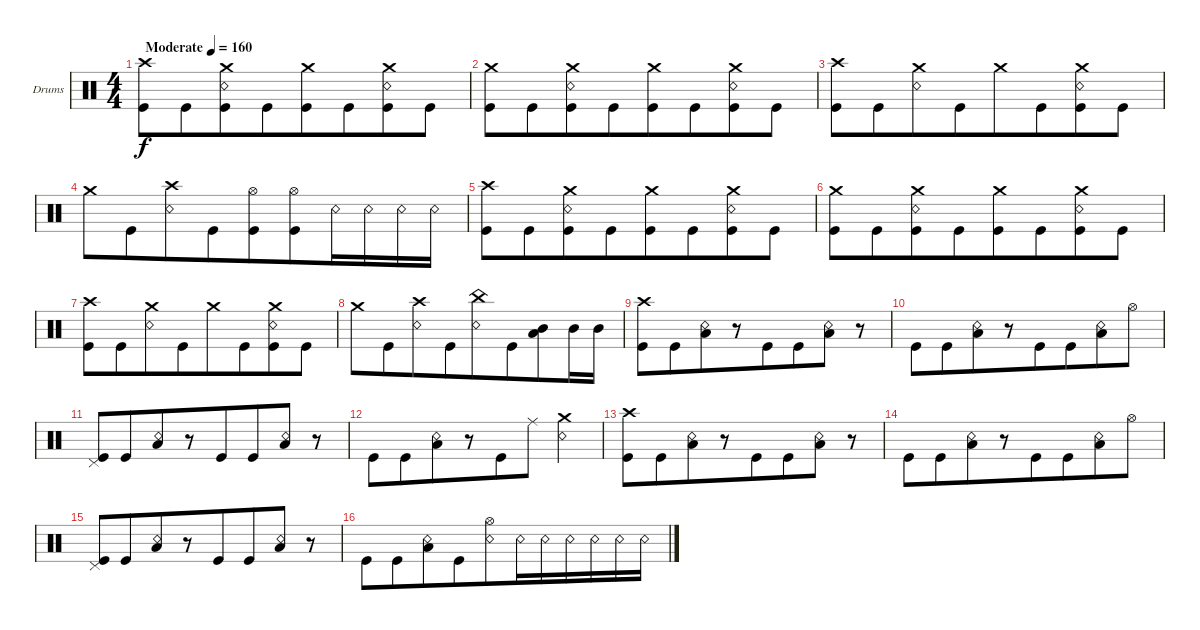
\bracketExtendMode groupsimilarinstruments
\firstSystemTrackNameOrientation horizontal
\otherSystemsTrackNameOrientation horizontal
\track ("Drumkit" "Drums") {instrument percussion}
\staff {score}
\articulation defaults
\ts (4 4)
\beaming (8 8)
\tempo (160 "Moderate")
\clef neutral
\scale
0.474178
\ks c
("Kick (hit)" "Crash high (hit)").8{dy f} "Kick (hit)".8 ("Kick (hit)" "Crash medium (hit)" "Snare (rim shot)").8 "Kick (hit)".8 ("Kick (hit)" "Crash medium (hit)").8 "Kick (hit)".8 ("Kick (hit)" "Crash medium (hit)" "Snare (rim shot)").8 "Kick (hit)".8 |
\scale
0.262911 ("Kick (hit)" "Crash medium (hit)").8 "Kick (hit)".8 ("Kick (hit)" "Crash medium (hit)" "Snare (rim shot)").8 "Kick (hit)".8 ("Kick (hit)" "Crash medium (hit)").8 "Kick (hit)".8 ("Kick (hit)" "Crash medium (hit)" "Snare (rim shot)").8 "Kick (hit)".8 |
\scale
0.262911 ("Kick (hit)" "Crash high (hit)").8 "Kick (hit)".8 ("Snare (rim shot)" "Crash medium (hit)").8 "Kick (hit)".8 "Crash medium (hit)".8 "Kick (hit)".8 ("Snare (rim shot)" "Kick (hit)" "Crash medium (hit)").8 "Kick (hit)".8 |
\scale
0.333333 "Crash medium (hit)".8 "Kick (hit)".8 ("Snare (rim shot)" "Crash high (hit)").8 "Kick (hit)".8 ("Kick (hit)" "Hi-Hat (open)").8 ("Kick (hit)" "Hi-Hat (open)").8 "Snare (rim shot)".16 "Snare (rim shot)".16 "Snare (rim shot)".16 "Snare (rim shot)".16 |
\scale
0.333333 ("Kick (hit)" "Crash high (hit)").8 "Kick (hit)".8 ("Kick (hit)" "Crash medium (hit)" "Snare (rim shot)").8 "Kick (hit)".8 ("Kick (hit)" "Crash medium (hit)").8 "Kick (hit)".8 ("Kick (hit)" "Crash medium (hit)" "Snare (rim shot)").8 "Kick (hit)".8 |
\scale
0.333333 ("Kick (hit)" "Crash medium (hit)").8 "Kick (hit)".8 ("Kick (hit)" "Crash medium (hit)" "Snare (rim shot)").8 "Kick (hit)".8 ("Kick (hit)" "Crash medium (hit)").8 "Kick (hit)".8 ("Kick (hit)" "Crash medium (hit)" "Snare (rim shot)").8 "Kick (hit)".8 |
\scale
0.333333 ("Kick (hit)" "Crash high (hit)").8 "Kick (hit)".8 ("Snare (rim shot)" "Crash medium (hit)").8 "Kick (hit)".8 "Crash medium (hit)".8 "Kick (hit)".8 ("Snare (rim shot)" "Kick (hit)" "Crash medium (hit)").8 "Kick (hit)".8 |
\scale
0.333333 "Crash medium (hit)".8 "Kick (hit)".8 ("Snare (rim shot)" "Crash high (hit)").8 "Kick (hit)".8 ("Snare (rim shot)" "China (hit)").8 "Kick (hit)".8 ("Mid Tom (hit)" "Low Tom (hit)").8 "Mid Tom (hit)".16 "Mid Tom (hit)".16 |
\scale
0.333333 ("Kick (hit)" "Crash high (hit)").8 "Kick (hit)".8 ("Snare (rim shot)" "Low Tom (hit)").8 r.8 "Kick (hit)".8 "Kick (hit)".8 ("Snare (rim shot)" "Low Tom (hit)").8 r.8 |
\scale
0.333333 "Kick (hit)".8 "Kick (hit)".8 ("Snare (rim shot)" "Low Tom (hit)").8 r.8 "Kick (hit)".8 "Kick (hit)".8 ("Snare (rim shot)" "Low Tom (hit)").8 "Hi-Hat (open)".8 |
\scale
0.333333 ("Kick (hit)" "Pedal Hi-Hat (hit)").8 "Kick (hit)".8 ("Snare (rim shot)" "Low Tom (hit)").8 r.8 "Kick (hit)".8 "Kick (hit)".8 ("Snare (rim shot)" "Low Tom (hit)").8 r.8 |
\scale
0.333333 "Kick (hit)".8 "Kick (hit)".8 ("Snare (rim shot)" "Low Tom (hit)").8 r.8 "Kick (hit)".8 "Ride (middle)".8 ("Snare (rim shot)" "Crash medium (hit)").4 |
\scale
0.333333 ("Kick (hit)" "Crash high (hit)").8 "Kick (hit)".8 ("Snare (rim shot)" "Low Tom (hit)").8 r.8 "Kick (hit)".8 "Kick (hit)".8 ("Snare (rim shot)" "Low Tom (hit)").8 r.8 |
\scale
0.333333 "Kick (hit)".8 "Kick (hit)".8 ("Snare (rim shot)" "Low Tom (hit)").8 r.8 "Kick (hit)".8 "Kick (hit)".8 ("Snare (rim shot)" "Low Tom (hit)").8 "Hi-Hat (open)".8 |
\scale
0.333333 ("Kick (hit)" "Pedal Hi-Hat (hit)").8 "Kick (hit)".8 ("Snare (rim shot)" "Low Tom (hit)").8 r.8 "Kick (hit)".8 "Kick (hit)".8 ("Snare (rim shot)" "Low Tom (hit)").8 r.8 |
\scale
0.333333 "Kick (hit)".8 "Kick (hit)".8 ("Snare (rim shot)" "Low Tom (hit)").8 "Kick (hit)".8 ("Snare (rim shot)" "Hi-Hat (open)").8 "Snare (rim shot)".16 "Snare (rim shot)".16 "Snare (rim shot)".16 "Snare (rim shot)".16 "Snare (rim shot)".16 "Snare (rim shot)".16
